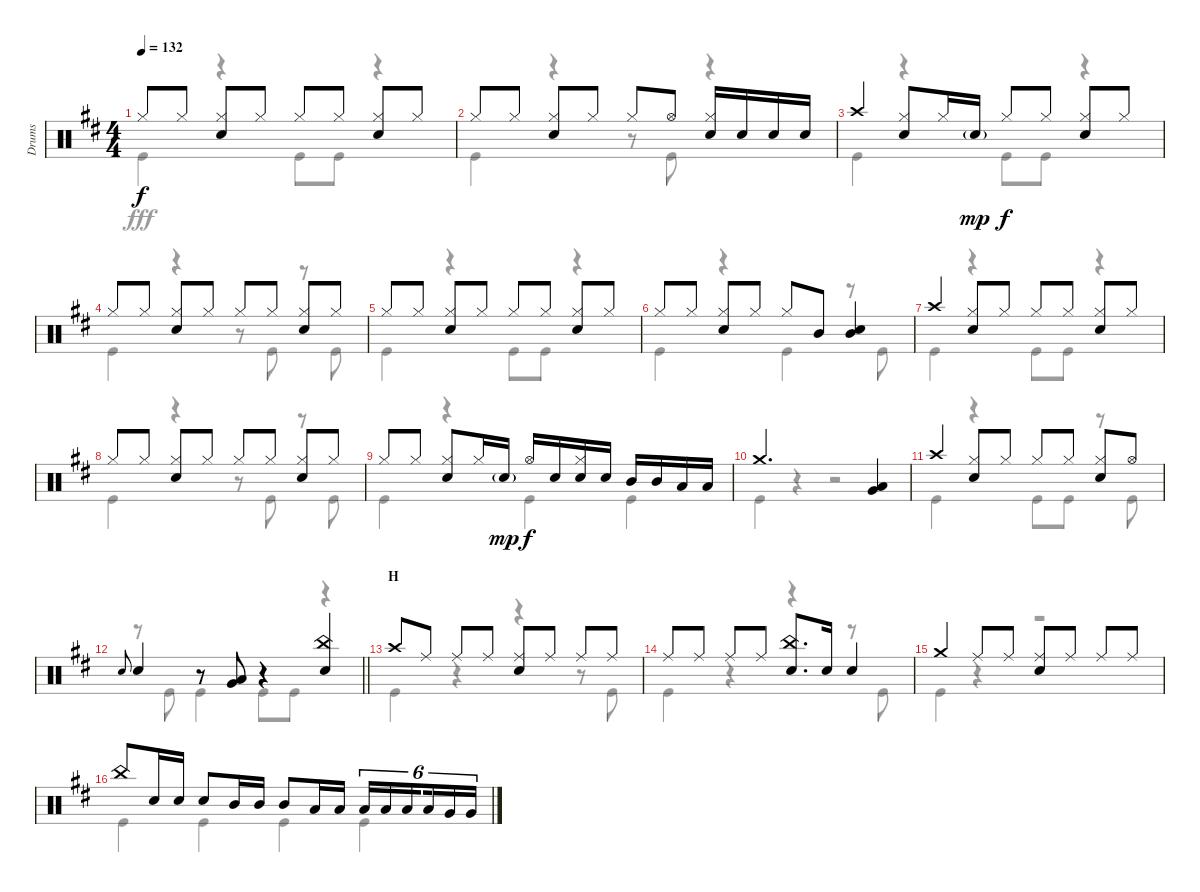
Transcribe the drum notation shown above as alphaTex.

\track ("Drums" "Drums") {instrument percussion}
\staff {score}
\articulation defaults
\voice
\ts (4 4)
\tempo 132
\clef neutral
\ks d "Hi-Hat (closed)".8{dy f} "Hi-Hat (closed)".8
("Hi-Hat (closed)" "Snare (hit) 2").8 "Hi-Hat (closed)".8 "Hi-Hat (closed)".8 "Hi-Hat (closed)".8 ("Hi-Hat (closed)" "Snare (hit) 2").8 "Hi-Hat (closed)".8 |
"Hi-Hat (closed)".8 "Hi-Hat (closed)".8 ("Hi-Hat (closed)" "Snare (hit) 2").8 "Hi-Hat (closed)".8 "Hi-Hat (closed)".8 "Hi-Hat (open)".8 ("Hi-Hat (closed)" "Snare (hit) 2").16 "Snare (hit) 2".16 "Snare (hit) 2".16 "Snare (hit) 2".16 |
"Crash high (hit)".4 ("Hi-Hat (closed)" "Snare (hit) 2").8 "Hi-Hat (closed)".16 "Snare (hit) 2"{g}.16{dy mp} "Hi-Hat (closed)".8{dy f} "Hi-Hat (closed)".8 ("Hi-Hat (closed)" "Snare (hit) 2").8 "Hi-Hat (closed)".8 |
"Hi-Hat (closed)".8 "Hi-Hat (closed)".8 ("Hi-Hat (closed)" "Snare (hit) 2").8 "Hi-Hat (closed)".8 "Hi-Hat (closed)".8 "Hi-Hat (closed)".8 ("Hi-Hat (closed)" "Snare (hit) 2").8 "Hi-Hat (closed)".8 |
"Hi-Hat (closed)".8 "Hi-Hat (closed)".8 ("Hi-Hat (closed)" "Snare (hit) 2").8 "Hi-Hat (closed)".8 "Hi-Hat (closed)".8 "Hi-Hat (closed)".8 ("Hi-Hat (closed)" "Snare (hit) 2").8 "Hi-Hat (closed)".8 |
"Hi-Hat (closed)".8 "Hi-Hat (closed)".8 ("Hi-Hat (closed)" "Snare (hit) 2").8 "Hi-Hat (closed)".8 "Hi-Hat (closed)".8 "Mid Tom (hit)".8 ("Mid Tom (hit)" "Snare (hit) 2").4 |
"Crash high (hit)".4 ("Hi-Hat (closed)" "Snare (hit) 2").8 "Hi-Hat (closed)".8 "Hi-Hat (closed)".8 "Hi-Hat (closed)".8 ("Hi-Hat (closed)" "Snare (hit) 2").8 "Hi-Hat (closed)".8 |
"Hi-Hat (closed)".8 "Hi-Hat (closed)".8 ("Hi-Hat (closed)" "Snare (hit) 2").8 "Hi-Hat (closed)".8 "Hi-Hat (closed)".8 "Hi-Hat (closed)".8 ("Hi-Hat (closed)" "Snare (hit) 2").8 "Hi-Hat (closed)".8 |
"Hi-Hat (closed)".8 "Hi-Hat (closed)".8 ("Hi-Hat (closed)" "Snare (hit) 2").8 "Hi-Hat (closed)".16 "Snare (hit) 2"{g}.16{dy mp} "Hi-Hat (open)".16{dy f} "Snare (hit) 2".16 ("Hi-Hat (closed)" "Snare (hit) 2").16 "Snare (hit) 2".16 "Mid Tom (hit)".16 "Mid Tom (hit)".16 "Low Tom (hit)".16 "Low Tom (hit)".16 |
"Crash medium (hit)".2{d} ("Low Tom (hit)" "Very Low Tom (hit)").4 |
"Crash high (hit)".4 ("Hi-Hat (closed)" "Snare (hit) 2").8 "Hi-Hat (closed)".8 "Hi-Hat (closed)".8 "Hi-Hat (closed)".8 ("Hi-Hat (closed)" "Snare (hit) 2").8 "Hi-Hat (open)".8 |
\barLineRight lightlight "Snare (hit) 2".8{gr onbeat} "Snare (hit) 2".4
r.8 ("Low Tom (hit)" "Very Low Tom (hit)").8 r.4 ("China (hit)" "Snare (hit) 2").4 |
\section ("" "H")
"Crash high (hit)".8 "Ride (middle)".8 "Ride (middle)".8 "Ride (middle)".8 ("Ride (middle)" "Snare (hit) 2").8 "Ride (middle)".8 "Ride (middle)".8 "Ride (middle)".8 |
"Ride (middle)".8 "Ride (middle)".8 "Ride (middle)".8 "Ride (middle)".8 ("China (hit)" "Snare (hit) 2").8{d} "Snare (hit) 2".16 "Snare (hit) 2".4 |
"Crash medium (hit)".4 "Ride (middle)".8 "Ride (middle)".8 ("Ride (middle)" "Snare (hit) 2").8 "Ride (middle)".8 "Ride (middle)".8 "Ride (middle)".8 |
"China (hit)".8 "Snare (hit) 2".16 "Snare (hit) 2".16 "Snare (hit) 2".8 "Mid Tom (hit)".16 "Mid Tom (hit)".16 "Mid Tom (hit)".8 "Low Tom (hit)".16 "Low Tom (hit)".16 "Low Tom (hit)".16{tu (6 4)} "Low Tom (hit)".16{tu (6 4)} "Low Tom (hit)".16{tu (6 4) beam splitsecondary} "Low Tom (hit)".16{tu (6 4)} "Very Low Tom (hit)".16{tu (6 4)} "Very Low Tom (hit)".16{tu (6 4)}
\voice
\clef neutral
\ottava regular
\simile none
\ks d "Kick (hit)".4{dy fff}
r.4 "Kick (hit)".8 "Kick (hit)".8 r.4 |
"Kick (hit)".4 r.4 r.8 "Kick (hit)".8 r.4 |
"Kick (hit)".4 r.4 "Kick (hit)".8 "Kick (hit)".8 r.4 |
"Kick (hit)".4 r.4 r.8 "Kick (hit)".8 r.8 "Kick (hit)".8 |
"Kick (hit)".4 r.4 "Kick (hit)".8 "Kick (hit)".8 r.4 |
"Kick (hit)".4 r.4 "Kick (hit)".4 r.8 "Kick (hit)".8 |
"Kick (hit)".4 r.4 "Kick (hit)".8 "Kick (hit)".8 r.4 |
"Kick (hit)".4 r.4 r.8 "Kick (hit)".8 r.8 "Kick (hit)".8 |
"Kick (hit)".4 r.4 "Kick (hit)".4 "Kick (hit)".4 |
"Kick (hit)".4 r.4 r.2 |
"Kick (hit)".4 r.4 "Kick (hit)".8 "Kick (hit)".8 r.8 "Kick (hit)".8 |
\barLineRight lightlight
r.8 "Kick (hit)".8 "Kick (hit)".4 "Kick (hit)".8 "Kick (hit)".8 r.4 |
"Kick (hit)".4 r.4 r.4 r.8 "Kick (hit)".8 |
"Kick (hit)".4 r.4 r.4 r.8 "Kick (hit)".8 |
"Kick (hit)".4 r.4 r.2 |
"Kick (hit)".4 "Kick (hit)".4 "Kick (hit)".4 "Kick (hit)".4
